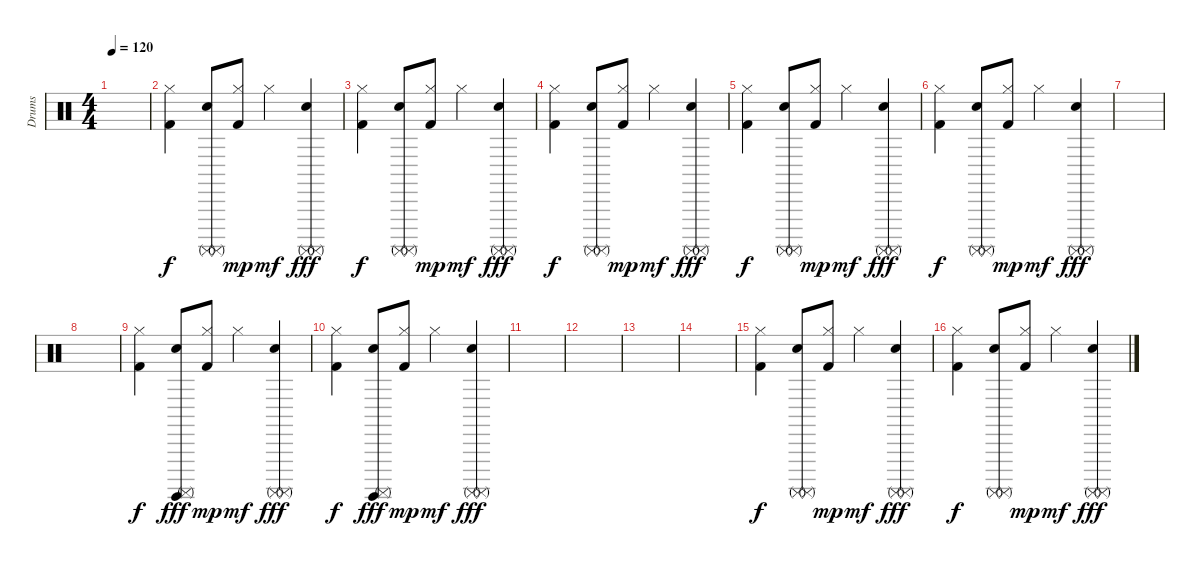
\track ("Drums" "Drums") {instrument percussion}
\staff {score}
\articulation defaults
\ts (4 4)
\tempo 120
\clef neutral
\ks c
|
("Kick (hit) 2" "Hi-Hat (closed)").4{dy f} ("Snare (hit) 2" "Surdo (mute)" "Surdo (mute)").8 ("Kick (hit) 2" "Hi-Hat (closed)").8{dy mp} "Hi-Hat (closed)".4{dy mf volume 13} ("Snare (hit) 2" "Surdo (mute)" "Surdo (mute)").4{dy fff} |
("Kick (hit) 2" "Hi-Hat (closed)").4{dy f} ("Snare (hit) 2" "Surdo (mute)" "Surdo (mute)").8 ("Kick (hit) 2" "Hi-Hat (closed)").8{dy mp} "Hi-Hat (closed)".4{dy mf volume 13} ("Snare (hit) 2" "Surdo (mute)" "Surdo (mute)").4{dy fff} |
("Kick (hit) 2" "Hi-Hat (closed)").4{dy f} ("Snare (hit) 2" "Surdo (mute)" "Surdo (mute)").8 ("Kick (hit) 2" "Hi-Hat (closed)").8{dy mp} "Hi-Hat (closed)".4{dy mf volume 13} ("Snare (hit) 2" "Surdo (mute)" "Surdo (mute)").4{dy fff} |
("Kick (hit) 2" "Hi-Hat (closed)").4{dy f} ("Snare (hit) 2" "Surdo (mute)" "Surdo (mute)").8 ("Kick (hit) 2" "Hi-Hat (closed)").8{dy mp} "Hi-Hat (closed)".4{dy mf volume 13} ("Snare (hit) 2" "Surdo (mute)" "Surdo (mute)").4{dy fff} |
("Kick (hit) 2" "Hi-Hat (closed)").4{dy f} ("Snare (hit) 2" "Surdo (mute)" "Surdo (mute)").8 ("Kick (hit) 2" "Hi-Hat (closed)").8{dy mp} "Hi-Hat (closed)".4{dy mf volume 13} ("Snare (hit) 2" "Surdo (mute)" "Surdo (mute)").4{dy fff} |
|
|
("Kick (hit) 2" "Hi-Hat (closed)").4{dy f} ("Snare (hit) 2" "Surdo (mute)" "Surdo (hit)").8{dy fff} ("Kick (hit) 2" "Hi-Hat (closed)").8{dy mp} "Hi-Hat (closed)".4{dy mf volume 13} ("Snare (hit) 2" "Surdo (mute)" "Surdo (mute)").4{dy fff} |
("Kick (hit) 2" "Hi-Hat (closed)").4{dy f} ("Snare (hit) 2" "Surdo (mute)" "Surdo (hit)").8{dy fff} ("Kick (hit) 2" "Hi-Hat (closed)").8{dy mp} "Hi-Hat (closed)".4{dy mf volume 13} ("Snare (hit) 2" "Surdo (mute)" "Surdo (mute)").4{dy fff} |
|
|
|
|
("Kick (hit) 2" "Hi-Hat (closed)").4{dy f} ("Snare (hit) 2" "Surdo (mute)" "Surdo (mute)").8 ("Kick (hit) 2" "Hi-Hat (closed)").8{dy mp} "Hi-Hat (closed)".4{dy mf volume 13} ("Snare (hit) 2" "Surdo (mute)" "Surdo (mute)").4{dy fff} |
("Kick (hit) 2" "Hi-Hat (closed)").4{dy f} ("Snare (hit) 2" "Surdo (mute)" "Surdo (mute)").8 ("Kick (hit) 2" "Hi-Hat (closed)").8{dy mp} "Hi-Hat (closed)".4{dy mf volume 13} ("Snare (hit) 2" "Surdo (mute)" "Surdo (mute)").4{dy fff}
